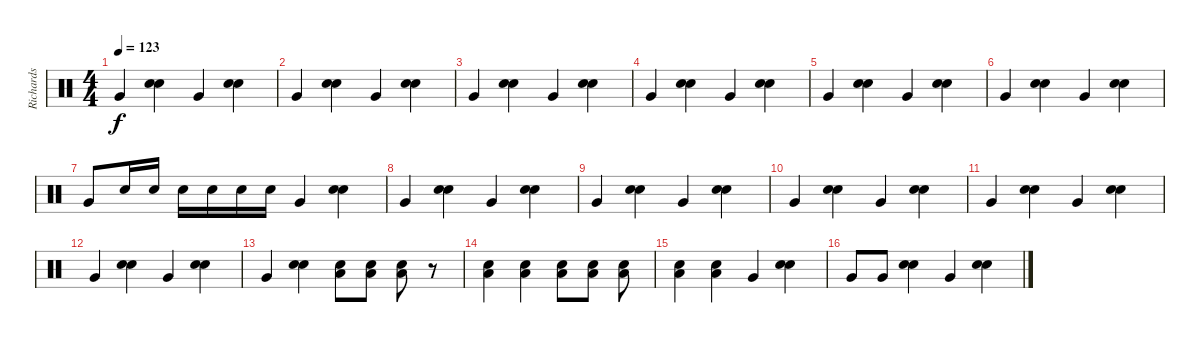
\track ("Richards" "Richards") {instrument percussion}
\staff {score}
\articulation defaults
\ts (4 4)
\tempo 123
\clef neutral
\ks c "Very Low Tom (hit)".4{dy f}
("Snare (hit) 2" "Electric Snare (hit)").4 "Very Low Tom (hit)".4 ("Snare (hit) 2" "Electric Snare (hit)").4 |
"Very Low Tom (hit)".4 ("Snare (hit) 2" "Electric Snare (hit)").4 "Very Low Tom (hit)".4 ("Snare (hit) 2" "Electric Snare (hit)").4 |
"Very Low Tom (hit)".4 ("Snare (hit) 2" "Electric Snare (hit)").4 "Very Low Tom (hit)".4 ("Snare (hit) 2" "Electric Snare (hit)").4 |
"Very Low Tom (hit)".4 ("Snare (hit) 2" "Electric Snare (hit)").4 "Very Low Tom (hit)".4 ("Snare (hit) 2" "Electric Snare (hit)").4 |
"Very Low Tom (hit)".4 ("Snare (hit) 2" "Electric Snare (hit)").4 "Very Low Tom (hit)".4 ("Snare (hit) 2" "Electric Snare (hit)").4 |
"Very Low Tom (hit)".4 ("Snare (hit) 2" "Electric Snare (hit)").4 "Very Low Tom (hit)".4 ("Snare (hit) 2" "Electric Snare (hit)").4 |
"Very Low Tom (hit)".8 "Snare (hit) 2".16 "Snare (hit) 2".16 "Snare (hit) 2".16 "Snare (hit) 2".16 "Snare (hit) 2".16 "Snare (hit) 2".16 "Very Low Tom (hit)".4 ("Snare (hit) 2" "Electric Snare (hit)").4 |
"Very Low Tom (hit)".4 ("Snare (hit) 2" "Electric Snare (hit)").4 "Very Low Tom (hit)".4 ("Snare (hit) 2" "Electric Snare (hit)").4 |
"Very Low Tom (hit)".4 ("Snare (hit) 2" "Electric Snare (hit)").4 "Very Low Tom (hit)".4 ("Snare (hit) 2" "Electric Snare (hit)").4 |
"Very Low Tom (hit)".4 ("Snare (hit) 2" "Electric Snare (hit)").4 "Very Low Tom (hit)".4 ("Snare (hit) 2" "Electric Snare (hit)").4 |
"Very Low Tom (hit)".4 ("Snare (hit) 2" "Electric Snare (hit)").4 "Very Low Tom (hit)".4 ("Snare (hit) 2" "Electric Snare (hit)").4 |
"Very Low Tom (hit)".4 ("Snare (hit) 2" "Electric Snare (hit)").4 "Very Low Tom (hit)".4 ("Snare (hit) 2" "Electric Snare (hit)").4 |
"Very Low Tom (hit)".4 ("Snare (hit) 2" "Electric Snare (hit)").4 ("Low Floor Tom (hit)" "Electric Snare (hit)").8 ("Low Floor Tom (hit)" "Electric Snare (hit)").8 ("Low Floor Tom (hit)" "Electric Snare (hit)").8 r.8 |
("Low Floor Tom (hit)" "Electric Snare (hit)").4 ("Low Floor Tom (hit)" "Electric Snare (hit)").4 ("Low Floor Tom (hit)" "Electric Snare (hit)").8 ("Low Floor Tom (hit)" "Electric Snare (hit)").8 ("Low Floor Tom (hit)" "Electric Snare (hit)").8 |
("Low Floor Tom (hit)" "Electric Snare (hit)").4 ("Low Floor Tom (hit)" "Electric Snare (hit)").4 "Very Low Tom (hit)".4 ("Snare (hit) 2" "Electric Snare (hit)").4 |
"Very Low Tom (hit)".8 "Very Low Tom (hit)".8 ("Snare (hit) 2" "Electric Snare (hit)").4 "Very Low Tom (hit)".4 ("Snare (hit) 2" "Electric Snare (hit)").4
